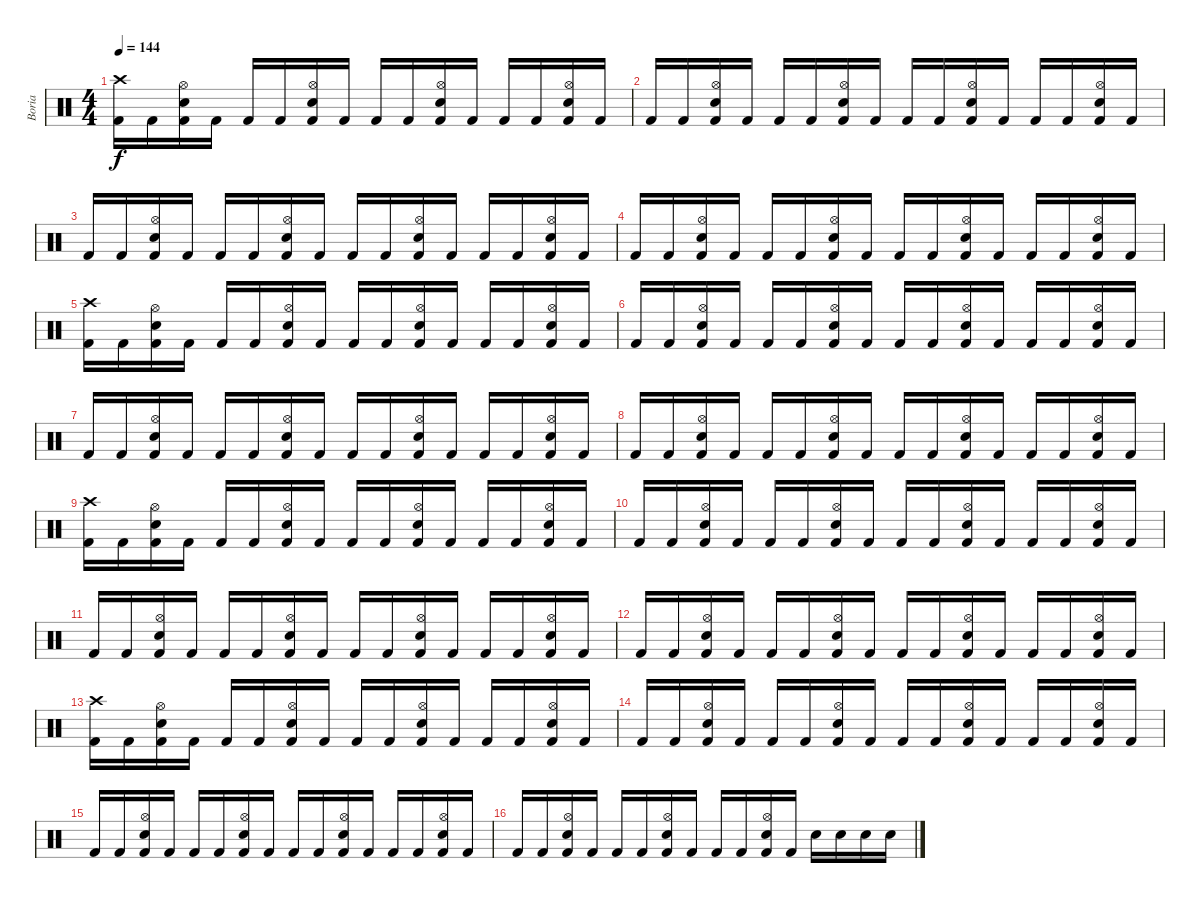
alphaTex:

\track ("Boria" "Boria") {instrument percussion}
\staff {score}
\articulation defaults
\ts (4 4)
\tempo 144
\clef neutral
\ks c
("Crash high (hit)" "Kick (hit) 2").16{dy f} "Kick (hit) 2".16 ("Hi-Hat (open)" "Electric Snare (hit)" "Kick (hit) 2").16 "Kick (hit) 2".16 "Kick (hit) 2".16 "Kick (hit) 2".16 ("Hi-Hat (open)" "Electric Snare (hit)" "Kick (hit) 2").16 "Kick (hit) 2".16 "Kick (hit) 2".16 "Kick (hit) 2".16 ("Hi-Hat (open)" "Electric Snare (hit)" "Kick (hit) 2").16 "Kick (hit) 2".16 "Kick (hit) 2".16 "Kick (hit) 2".16 ("Hi-Hat (open)" "Electric Snare (hit)" "Kick (hit) 2").16 "Kick (hit) 2".16 |
"Kick (hit) 2".16 "Kick (hit) 2".16 ("Hi-Hat (open)" "Electric Snare (hit)" "Kick (hit) 2").16 "Kick (hit) 2".16 "Kick (hit) 2".16 "Kick (hit) 2".16 ("Hi-Hat (open)" "Electric Snare (hit)" "Kick (hit) 2").16 "Kick (hit) 2".16 "Kick (hit) 2".16 "Kick (hit) 2".16 ("Hi-Hat (open)" "Electric Snare (hit)" "Kick (hit) 2").16 "Kick (hit) 2".16 "Kick (hit) 2".16 "Kick (hit) 2".16 ("Hi-Hat (open)" "Electric Snare (hit)" "Kick (hit) 2").16 "Kick (hit) 2".16 |
"Kick (hit) 2".16 "Kick (hit) 2".16 ("Hi-Hat (open)" "Electric Snare (hit)" "Kick (hit) 2").16 "Kick (hit) 2".16 "Kick (hit) 2".16 "Kick (hit) 2".16 ("Hi-Hat (open)" "Electric Snare (hit)" "Kick (hit) 2").16 "Kick (hit) 2".16 "Kick (hit) 2".16 "Kick (hit) 2".16 ("Hi-Hat (open)" "Electric Snare (hit)" "Kick (hit) 2").16 "Kick (hit) 2".16 "Kick (hit) 2".16 "Kick (hit) 2".16 ("Hi-Hat (open)" "Electric Snare (hit)" "Kick (hit) 2").16 "Kick (hit) 2".16 |
"Kick (hit) 2".16 "Kick (hit) 2".16 ("Hi-Hat (open)" "Electric Snare (hit)" "Kick (hit) 2").16 "Kick (hit) 2".16 "Kick (hit) 2".16 "Kick (hit) 2".16 ("Hi-Hat (open)" "Electric Snare (hit)" "Kick (hit) 2").16 "Kick (hit) 2".16 "Kick (hit) 2".16 "Kick (hit) 2".16 ("Hi-Hat (open)" "Electric Snare (hit)" "Kick (hit) 2").16 "Kick (hit) 2".16 "Kick (hit) 2".16 "Kick (hit) 2".16 ("Hi-Hat (open)" "Electric Snare (hit)" "Kick (hit) 2").16 "Kick (hit) 2".16 |
("Crash high (hit)" "Kick (hit) 2").16 "Kick (hit) 2".16 ("Hi-Hat (open)" "Electric Snare (hit)" "Kick (hit) 2").16 "Kick (hit) 2".16 "Kick (hit) 2".16 "Kick (hit) 2".16 ("Hi-Hat (open)" "Electric Snare (hit)" "Kick (hit) 2").16 "Kick (hit) 2".16 "Kick (hit) 2".16 "Kick (hit) 2".16 ("Hi-Hat (open)" "Electric Snare (hit)" "Kick (hit) 2").16 "Kick (hit) 2".16 "Kick (hit) 2".16 "Kick (hit) 2".16 ("Hi-Hat (open)" "Electric Snare (hit)" "Kick (hit) 2").16 "Kick (hit) 2".16 |
"Kick (hit) 2".16 "Kick (hit) 2".16 ("Hi-Hat (open)" "Electric Snare (hit)" "Kick (hit) 2").16 "Kick (hit) 2".16 "Kick (hit) 2".16 "Kick (hit) 2".16 ("Hi-Hat (open)" "Electric Snare (hit)" "Kick (hit) 2").16 "Kick (hit) 2".16 "Kick (hit) 2".16 "Kick (hit) 2".16 ("Hi-Hat (open)" "Electric Snare (hit)" "Kick (hit) 2").16 "Kick (hit) 2".16 "Kick (hit) 2".16 "Kick (hit) 2".16 ("Hi-Hat (open)" "Electric Snare (hit)" "Kick (hit) 2").16 "Kick (hit) 2".16 |
"Kick (hit) 2".16 "Kick (hit) 2".16 ("Hi-Hat (open)" "Electric Snare (hit)" "Kick (hit) 2").16 "Kick (hit) 2".16 "Kick (hit) 2".16 "Kick (hit) 2".16 ("Hi-Hat (open)" "Electric Snare (hit)" "Kick (hit) 2").16 "Kick (hit) 2".16 "Kick (hit) 2".16 "Kick (hit) 2".16 ("Hi-Hat (open)" "Electric Snare (hit)" "Kick (hit) 2").16 "Kick (hit) 2".16 "Kick (hit) 2".16 "Kick (hit) 2".16 ("Hi-Hat (open)" "Electric Snare (hit)" "Kick (hit) 2").16 "Kick (hit) 2".16 |
"Kick (hit) 2".16 "Kick (hit) 2".16 ("Hi-Hat (open)" "Electric Snare (hit)" "Kick (hit) 2").16 "Kick (hit) 2".16 "Kick (hit) 2".16 "Kick (hit) 2".16 ("Hi-Hat (open)" "Electric Snare (hit)" "Kick (hit) 2").16 "Kick (hit) 2".16 "Kick (hit) 2".16 "Kick (hit) 2".16 ("Hi-Hat (open)" "Electric Snare (hit)" "Kick (hit) 2").16 "Kick (hit) 2".16 "Kick (hit) 2".16 "Kick (hit) 2".16 ("Hi-Hat (open)" "Electric Snare (hit)" "Kick (hit) 2").16 "Kick (hit) 2".16 |
("Crash high (hit)" "Kick (hit) 2").16 "Kick (hit) 2".16 ("Hi-Hat (open)" "Electric Snare (hit)" "Kick (hit) 2").16 "Kick (hit) 2".16 "Kick (hit) 2".16 "Kick (hit) 2".16 ("Hi-Hat (open)" "Electric Snare (hit)" "Kick (hit) 2").16 "Kick (hit) 2".16 "Kick (hit) 2".16 "Kick (hit) 2".16 ("Hi-Hat (open)" "Electric Snare (hit)" "Kick (hit) 2").16 "Kick (hit) 2".16 "Kick (hit) 2".16 "Kick (hit) 2".16 ("Hi-Hat (open)" "Electric Snare (hit)" "Kick (hit) 2").16 "Kick (hit) 2".16 |
"Kick (hit) 2".16 "Kick (hit) 2".16 ("Hi-Hat (open)" "Electric Snare (hit)" "Kick (hit) 2").16 "Kick (hit) 2".16 "Kick (hit) 2".16 "Kick (hit) 2".16 ("Hi-Hat (open)" "Electric Snare (hit)" "Kick (hit) 2").16 "Kick (hit) 2".16 "Kick (hit) 2".16 "Kick (hit) 2".16 ("Hi-Hat (open)" "Electric Snare (hit)" "Kick (hit) 2").16 "Kick (hit) 2".16 "Kick (hit) 2".16 "Kick (hit) 2".16 ("Hi-Hat (open)" "Electric Snare (hit)" "Kick (hit) 2").16 "Kick (hit) 2".16 |
"Kick (hit) 2".16 "Kick (hit) 2".16 ("Hi-Hat (open)" "Electric Snare (hit)" "Kick (hit) 2").16 "Kick (hit) 2".16 "Kick (hit) 2".16 "Kick (hit) 2".16 ("Hi-Hat (open)" "Electric Snare (hit)" "Kick (hit) 2").16 "Kick (hit) 2".16 "Kick (hit) 2".16 "Kick (hit) 2".16 ("Hi-Hat (open)" "Electric Snare (hit)" "Kick (hit) 2").16 "Kick (hit) 2".16 "Kick (hit) 2".16 "Kick (hit) 2".16 ("Hi-Hat (open)" "Electric Snare (hit)" "Kick (hit) 2").16 "Kick (hit) 2".16 |
"Kick (hit) 2".16 "Kick (hit) 2".16 ("Hi-Hat (open)" "Electric Snare (hit)" "Kick (hit) 2").16 "Kick (hit) 2".16 "Kick (hit) 2".16 "Kick (hit) 2".16 ("Hi-Hat (open)" "Electric Snare (hit)" "Kick (hit) 2").16 "Kick (hit) 2".16 "Kick (hit) 2".16 "Kick (hit) 2".16 ("Hi-Hat (open)" "Electric Snare (hit)" "Kick (hit) 2").16 "Kick (hit) 2".16 "Kick (hit) 2".16 "Kick (hit) 2".16 ("Hi-Hat (open)" "Electric Snare (hit)" "Kick (hit) 2").16 "Kick (hit) 2".16 |
("Crash high (hit)" "Kick (hit) 2").16 "Kick (hit) 2".16 ("Hi-Hat (open)" "Electric Snare (hit)" "Kick (hit) 2").16 "Kick (hit) 2".16 "Kick (hit) 2".16 "Kick (hit) 2".16 ("Hi-Hat (open)" "Electric Snare (hit)" "Kick (hit) 2").16 "Kick (hit) 2".16 "Kick (hit) 2".16 "Kick (hit) 2".16 ("Hi-Hat (open)" "Electric Snare (hit)" "Kick (hit) 2").16 "Kick (hit) 2".16 "Kick (hit) 2".16 "Kick (hit) 2".16 ("Hi-Hat (open)" "Electric Snare (hit)" "Kick (hit) 2").16 "Kick (hit) 2".16 |
"Kick (hit) 2".16 "Kick (hit) 2".16 ("Hi-Hat (open)" "Electric Snare (hit)" "Kick (hit) 2").16 "Kick (hit) 2".16 "Kick (hit) 2".16 "Kick (hit) 2".16 ("Hi-Hat (open)" "Electric Snare (hit)" "Kick (hit) 2").16 "Kick (hit) 2".16 "Kick (hit) 2".16 "Kick (hit) 2".16 ("Hi-Hat (open)" "Electric Snare (hit)" "Kick (hit) 2").16 "Kick (hit) 2".16 "Kick (hit) 2".16 "Kick (hit) 2".16 ("Hi-Hat (open)" "Electric Snare (hit)" "Kick (hit) 2").16 "Kick (hit) 2".16 |
"Kick (hit) 2".16 "Kick (hit) 2".16 ("Hi-Hat (open)" "Electric Snare (hit)" "Kick (hit) 2").16 "Kick (hit) 2".16 "Kick (hit) 2".16 "Kick (hit) 2".16 ("Hi-Hat (open)" "Electric Snare (hit)" "Kick (hit) 2").16 "Kick (hit) 2".16 "Kick (hit) 2".16 "Kick (hit) 2".16 ("Hi-Hat (open)" "Electric Snare (hit)" "Kick (hit) 2").16 "Kick (hit) 2".16 "Kick (hit) 2".16 "Kick (hit) 2".16 ("Hi-Hat (open)" "Electric Snare (hit)" "Kick (hit) 2").16 "Kick (hit) 2".16 |
"Kick (hit) 2".16 "Kick (hit) 2".16 ("Hi-Hat (open)" "Electric Snare (hit)" "Kick (hit) 2").16 "Kick (hit) 2".16 "Kick (hit) 2".16 "Kick (hit) 2".16 ("Hi-Hat (open)" "Electric Snare (hit)" "Kick (hit) 2").16 "Kick (hit) 2".16 "Kick (hit) 2".16 "Kick (hit) 2".16 ("Hi-Hat (open)" "Electric Snare (hit)" "Kick (hit) 2").16 "Kick (hit) 2".16 "Electric Snare (hit)".16 "Electric Snare (hit)".16 "Electric Snare (hit)".16 "Electric Snare (hit)".16
